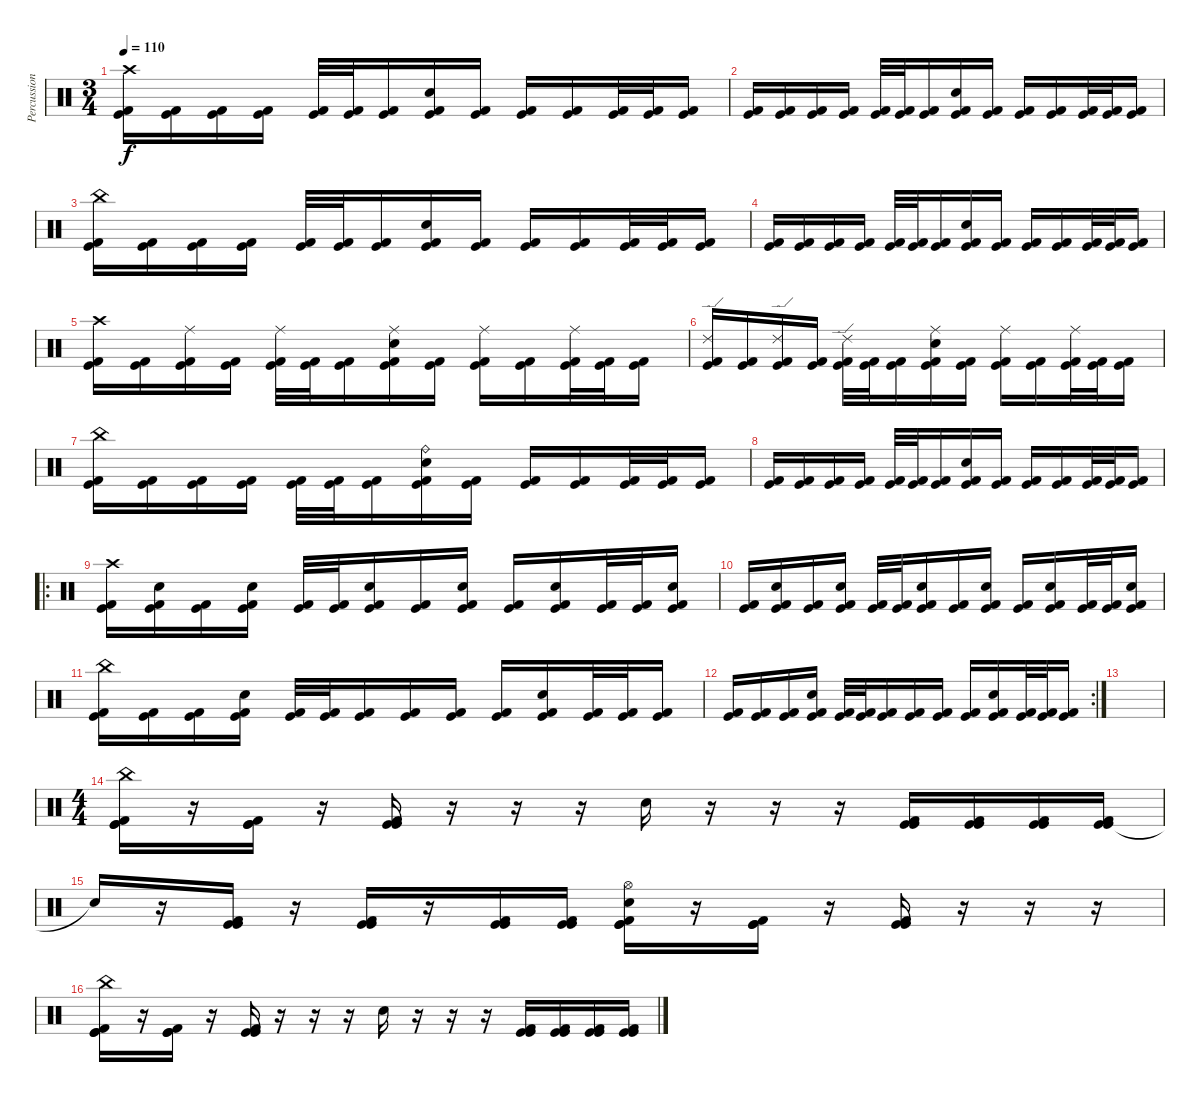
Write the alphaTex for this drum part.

\track ("Percussion" "Percussion") {instrument percussion}
\staff {score}
\articulation defaults
\ts (3 4)
\tempo 110
\clef neutral
\ks c
("Crash high (hit)" "Kick (hit)" "Kick (hit) 2").16{dy f} ("Kick (hit)" "Kick (hit) 2").16 ("Kick (hit)" "Kick (hit) 2").16 ("Kick (hit)" "Kick (hit) 2").16 ("Kick (hit)" "Kick (hit) 2").32 ("Kick (hit)" "Kick (hit) 2").32 ("Kick (hit)" "Kick (hit) 2").16 ("Electric Snare (hit)" "Kick (hit)" "Kick (hit) 2").16 ("Kick (hit)" "Kick (hit) 2").16 ("Kick (hit)" "Kick (hit) 2").16 ("Kick (hit)" "Kick (hit) 2").16 ("Kick (hit)" "Kick (hit) 2").32 ("Kick (hit)" "Kick (hit) 2").32 ("Kick (hit)" "Kick (hit) 2").16 |
("Kick (hit)" "Kick (hit) 2").16 ("Kick (hit)" "Kick (hit) 2").16 ("Kick (hit)" "Kick (hit) 2").16 ("Kick (hit)" "Kick (hit) 2").16 ("Kick (hit)" "Kick (hit) 2").32 ("Kick (hit)" "Kick (hit) 2").32 ("Kick (hit)" "Kick (hit) 2").16 ("Electric Snare (hit)" "Kick (hit)" "Kick (hit) 2").16 ("Kick (hit)" "Kick (hit) 2").16 ("Kick (hit)" "Kick (hit) 2").16 ("Kick (hit)" "Kick (hit) 2").16 ("Kick (hit)" "Kick (hit) 2").32 ("Kick (hit)" "Kick (hit) 2").32 ("Kick (hit)" "Kick (hit) 2").16 |
("China (hit)" "Kick (hit)" "Kick (hit) 2").16 ("Kick (hit)" "Kick (hit) 2").16 ("Kick (hit)" "Kick (hit) 2").16 ("Kick (hit)" "Kick (hit) 2").16 ("Kick (hit)" "Kick (hit) 2").32 ("Kick (hit)" "Kick (hit) 2").32 ("Kick (hit)" "Kick (hit) 2").16 ("Electric Snare (hit)" "Kick (hit)" "Kick (hit) 2").16 ("Kick (hit)" "Kick (hit) 2").16 ("Kick (hit)" "Kick (hit) 2").16 ("Kick (hit)" "Kick (hit) 2").16 ("Kick (hit)" "Kick (hit) 2").32 ("Kick (hit)" "Kick (hit) 2").32 ("Kick (hit)" "Kick (hit) 2").16 |
("Kick (hit)" "Kick (hit) 2").16 ("Kick (hit)" "Kick (hit) 2").16 ("Kick (hit)" "Kick (hit) 2").16 ("Kick (hit)" "Kick (hit) 2").16 ("Kick (hit)" "Kick (hit) 2").32 ("Kick (hit)" "Kick (hit) 2").32 ("Kick (hit)" "Kick (hit) 2").16 ("Electric Snare (hit)" "Kick (hit)" "Kick (hit) 2").16 ("Kick (hit)" "Kick (hit) 2").16 ("Kick (hit)" "Kick (hit) 2").16 ("Kick (hit)" "Kick (hit) 2").16 ("Kick (hit)" "Kick (hit) 2").32 ("Kick (hit)" "Kick (hit) 2").32 ("Kick (hit)" "Kick (hit) 2").16 |
("Crash high (hit)" "Kick (hit)" "Kick (hit) 2").16 ("Kick (hit)" "Kick (hit) 2").16 ("Ride (middle)" "Kick (hit)" "Kick (hit) 2").16 ("Kick (hit)" "Kick (hit) 2").16 ("Ride (middle)" "Kick (hit)" "Kick (hit) 2").32 ("Kick (hit)" "Kick (hit) 2").32 ("Kick (hit)" "Kick (hit) 2").16 ("Ride (middle)" "Electric Snare (hit)" "Kick (hit)" "Kick (hit) 2").16 ("Kick (hit)" "Kick (hit) 2").16 ("Ride (middle)" "Kick (hit)" "Kick (hit) 2").16 ("Kick (hit)" "Kick (hit) 2").16 ("Ride (middle)" "Kick (hit)" "Kick (hit) 2").32 ("Kick (hit)" "Kick (hit) 2").32 ("Kick (hit)" "Kick (hit) 2").16 |
("Ride (edge) 2" "Kick (hit)" "Kick (hit) 2").16 ("Kick (hit)" "Kick (hit) 2").16 ("Ride (edge) 2" "Kick (hit)" "Kick (hit) 2").16 ("Kick (hit)" "Kick (hit) 2").16 ("Ride (edge) 2" "Kick (hit)" "Kick (hit) 2").32 ("Kick (hit)" "Kick (hit) 2").32 ("Kick (hit)" "Kick (hit) 2").16 ("Ride (middle)" "Electric Snare (hit)" "Kick (hit)" "Kick (hit) 2").16 ("Kick (hit)" "Kick (hit) 2").16 ("Ride (middle)" "Kick (hit)" "Kick (hit) 2").16 ("Kick (hit)" "Kick (hit) 2").16 ("Ride (middle)" "Kick (hit)" "Kick (hit) 2").32 ("Kick (hit)" "Kick (hit) 2").32 ("Kick (hit)" "Kick (hit) 2").16 |
("China (hit)" "Kick (hit)" "Kick (hit) 2").16 ("Kick (hit)" "Kick (hit) 2").16 ("Kick (hit)" "Kick (hit) 2").16 ("Kick (hit)" "Kick (hit) 2").16 ("Kick (hit)" "Kick (hit) 2").32 ("Kick (hit)" "Kick (hit) 2").32 ("Kick (hit)" "Kick (hit) 2").16 ("Ride (bell)" "Electric Snare (hit)" "Kick (hit)" "Kick (hit) 2").16 ("Kick (hit)" "Kick (hit) 2").16 ("Kick (hit)" "Kick (hit) 2").16 ("Kick (hit)" "Kick (hit) 2").16 ("Kick (hit)" "Kick (hit) 2").32 ("Kick (hit)" "Kick (hit) 2").32 ("Kick (hit)" "Kick (hit) 2").16 |
("Kick (hit)" "Kick (hit) 2").16 ("Kick (hit)" "Kick (hit) 2").16 ("Kick (hit)" "Kick (hit) 2").16 ("Kick (hit)" "Kick (hit) 2").16 ("Kick (hit)" "Kick (hit) 2").32 ("Kick (hit)" "Kick (hit) 2").32 ("Kick (hit)" "Kick (hit) 2").16 ("Electric Snare (hit)" "Kick (hit)" "Kick (hit) 2").16 ("Kick (hit)" "Kick (hit) 2").16 ("Kick (hit)" "Kick (hit) 2").16 ("Kick (hit)" "Kick (hit) 2").16 ("Kick (hit)" "Kick (hit) 2").32 ("Kick (hit)" "Kick (hit) 2").32 ("Kick (hit)" "Kick (hit) 2").16 |
\ro
("Crash high (hit)" "Kick (hit)" "Kick (hit) 2").16 ("Electric Snare (hit)" "Kick (hit)" "Kick (hit) 2").16 ("Kick (hit)" "Kick (hit) 2").16 ("Electric Snare (hit)" "Kick (hit)" "Kick (hit) 2").16 ("Kick (hit)" "Kick (hit) 2").32 ("Kick (hit)" "Kick (hit) 2").32 ("Electric Snare (hit)" "Kick (hit)" "Kick (hit) 2").16 ("Kick (hit)" "Kick (hit) 2").16 ("Electric Snare (hit)" "Kick (hit)" "Kick (hit) 2").16 ("Kick (hit)" "Kick (hit) 2").16 ("Electric Snare (hit)" "Kick (hit)" "Kick (hit) 2").16 ("Kick (hit)" "Kick (hit) 2").32 ("Kick (hit)" "Kick (hit) 2").32 ("Electric Snare (hit)" "Kick (hit)" "Kick (hit) 2").16 |
("Kick (hit)" "Kick (hit) 2").16 ("Electric Snare (hit)" "Kick (hit)" "Kick (hit) 2").16 ("Kick (hit)" "Kick (hit) 2").16 ("Electric Snare (hit)" "Kick (hit)" "Kick (hit) 2").16 ("Kick (hit)" "Kick (hit) 2").32 ("Kick (hit)" "Kick (hit) 2").32 ("Electric Snare (hit)" "Kick (hit)" "Kick (hit) 2").16 ("Kick (hit)" "Kick (hit) 2").16 ("Electric Snare (hit)" "Kick (hit)" "Kick (hit) 2").16 ("Kick (hit)" "Kick (hit) 2").16 ("Electric Snare (hit)" "Kick (hit)" "Kick (hit) 2").16 ("Kick (hit)" "Kick (hit) 2").32 ("Kick (hit)" "Kick (hit) 2").32 ("Electric Snare (hit)" "Kick (hit)" "Kick (hit) 2").16 |
("China (hit)" "Kick (hit)" "Kick (hit) 2").16 ("Kick (hit)" "Kick (hit) 2").16 ("Kick (hit)" "Kick (hit) 2").16 ("Electric Snare (hit)" "Kick (hit)" "Kick (hit) 2").16 ("Kick (hit)" "Kick (hit) 2").32 ("Kick (hit)" "Kick (hit) 2").32 ("Kick (hit)" "Kick (hit) 2").16 ("Kick (hit)" "Kick (hit) 2").16 ("Kick (hit)" "Kick (hit) 2").16 ("Kick (hit)" "Kick (hit) 2").16 ("Electric Snare (hit)" "Kick (hit)" "Kick (hit) 2").16 ("Kick (hit)" "Kick (hit) 2").32 ("Kick (hit)" "Kick (hit) 2").32 ("Kick (hit)" "Kick (hit) 2").16 |
\rc 2
("Kick (hit)" "Kick (hit) 2").16 ("Kick (hit)" "Kick (hit) 2").16 ("Kick (hit)" "Kick (hit) 2").16 ("Electric Snare (hit)" "Kick (hit)" "Kick (hit) 2").16 ("Kick (hit)" "Kick (hit) 2").32 ("Kick (hit)" "Kick (hit) 2").32 ("Kick (hit)" "Kick (hit) 2").16 ("Kick (hit)" "Kick (hit) 2").16 ("Kick (hit)" "Kick (hit) 2").16 ("Kick (hit)" "Kick (hit) 2").16 ("Electric Snare (hit)" "Kick (hit)" "Kick (hit) 2").16 ("Kick (hit)" "Kick (hit) 2").32 ("Kick (hit)" "Kick (hit) 2").32 ("Kick (hit)" "Kick (hit) 2").16 |
|
\ts (4 4)
("China (hit)" "Kick (hit)" "Kick (hit)" "Kick (hit) 2").16 r.16 ("Kick (hit)" "Kick (hit)" "Kick (hit) 2").16 r.16 ("Kick (hit)" "Kick (hit)" "Kick (hit) 2").16 r.16 r.16 r.16 "Electric Snare (hit)".16 r.16 r.16 r.16 ("Kick (hit)" "Kick (hit)" "Kick (hit) 2").16 ("Kick (hit)" "Kick (hit)" "Kick (hit) 2").16 ("Kick (hit)" "Kick (hit)" "Kick (hit) 2").16 ("Kick (hit)" "Kick (hit)" "Kick (hit) 2").16 |
"Snare (hit)"{t}.16 r.16 ("Kick (hit)" "Kick (hit)" "Kick (hit) 2").16 r.16 ("Kick (hit)" "Kick (hit)" "Kick (hit) 2").16 r.16 ("Kick (hit)" "Kick (hit)" "Kick (hit) 2").16 ("Kick (hit)" "Kick (hit)" "Kick (hit) 2").16 ("Hi-Hat (open)" "Kick (hit)" "Electric Snare (hit)" "Kick (hit)" "Kick (hit) 2").16 r.16 ("Kick (hit)" "Kick (hit)" "Kick (hit) 2").16 r.16 ("Kick (hit)" "Kick (hit)" "Kick (hit) 2").16 r.16 r.16 r.16 |
("China (hit)" "Kick (hit)" "Kick (hit)" "Kick (hit) 2").16 r.16 ("Kick (hit)" "Kick (hit)" "Kick (hit) 2").16 r.16 ("Kick (hit)" "Kick (hit)" "Kick (hit) 2").16 r.16 r.16 r.16 "Electric Snare (hit)".16 r.16 r.16 r.16 ("Kick (hit)" "Kick (hit)" "Kick (hit) 2").16 ("Kick (hit)" "Kick (hit)" "Kick (hit) 2").16 ("Kick (hit)" "Kick (hit)" "Kick (hit) 2").16 ("Kick (hit)" "Kick (hit)" "Kick (hit) 2").16
